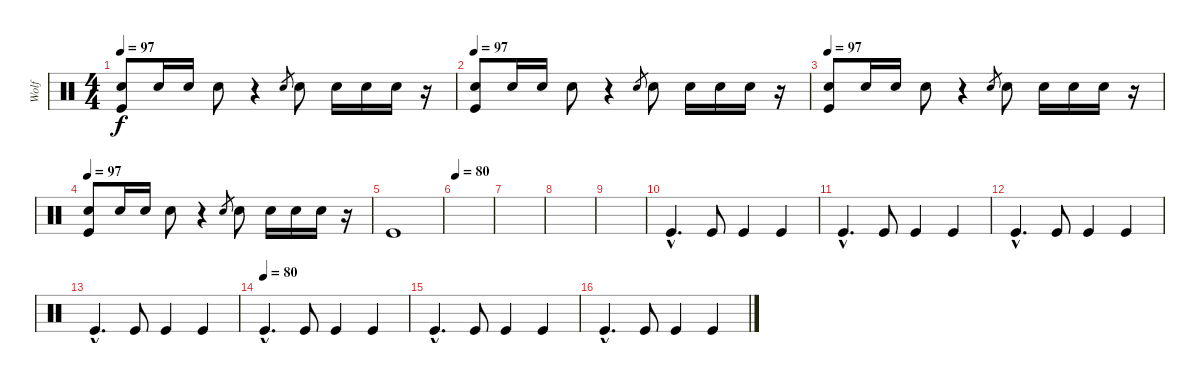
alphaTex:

\track ("Wolf" "Wolf") {instrument percussion}
\staff {score}
\articulation defaults
\ts (4 4)
\tempo 97
\clef neutral
\ks c
("Snare (hit) 2" "Kick (hit)").8{dy f} "Snare (hit) 2".16 "Snare (hit) 2".16 "Snare (hit) 2".8 r.4 "Snare (hit) 2".8{gr} "Snare (hit) 2".8 "Snare (hit) 2".16 "Snare (hit) 2".16 "Snare (hit) 2".16 r.16 |
\tempo 97
("Snare (hit) 2" "Kick (hit)").8 "Snare (hit) 2".16 "Snare (hit) 2".16 "Snare (hit) 2".8 r.4 "Snare (hit) 2".8{gr} "Snare (hit) 2".8 "Snare (hit) 2".16 "Snare (hit) 2".16 "Snare (hit) 2".16 r.16 |
\tempo 97
("Snare (hit) 2" "Kick (hit)").8 "Snare (hit) 2".16 "Snare (hit) 2".16 "Snare (hit) 2".8 r.4 "Snare (hit) 2".8{gr} "Snare (hit) 2".8 "Snare (hit) 2".16 "Snare (hit) 2".16 "Snare (hit) 2".16 r.16 |
\tempo 97
("Snare (hit) 2" "Kick (hit)").8 "Snare (hit) 2".16 "Snare (hit) 2".16 "Snare (hit) 2".8 r.4 "Snare (hit) 2".8{gr} "Snare (hit) 2".8 "Snare (hit) 2".16 "Snare (hit) 2".16 "Snare (hit) 2".16 r.16 |
"Kick (hit)".1 |
\tempo 80
|
|
|
|
"Kick (hit)"{hac}.4{d} "Kick (hit)".8 "Kick (hit)".4 "Kick (hit)".4 |
"Kick (hit)"{hac}.4{d} "Kick (hit)".8 "Kick (hit)".4 "Kick (hit)".4 |
"Kick (hit)"{hac}.4{d} "Kick (hit)".8 "Kick (hit)".4 "Kick (hit)".4 |
"Kick (hit)"{hac}.4{d} "Kick (hit)".8 "Kick (hit)".4 "Kick (hit)".4 |
\tempo (80)
"Kick (hit)"{hac}.4{d} "Kick (hit)".8 "Kick (hit)".4 "Kick (hit)".4 |
"Kick (hit)"{hac}.4{d} "Kick (hit)".8 "Kick (hit)".4 "Kick (hit)".4 |
"Kick (hit)"{hac}.4{d} "Kick (hit)".8 "Kick (hit)".4 "Kick (hit)".4
